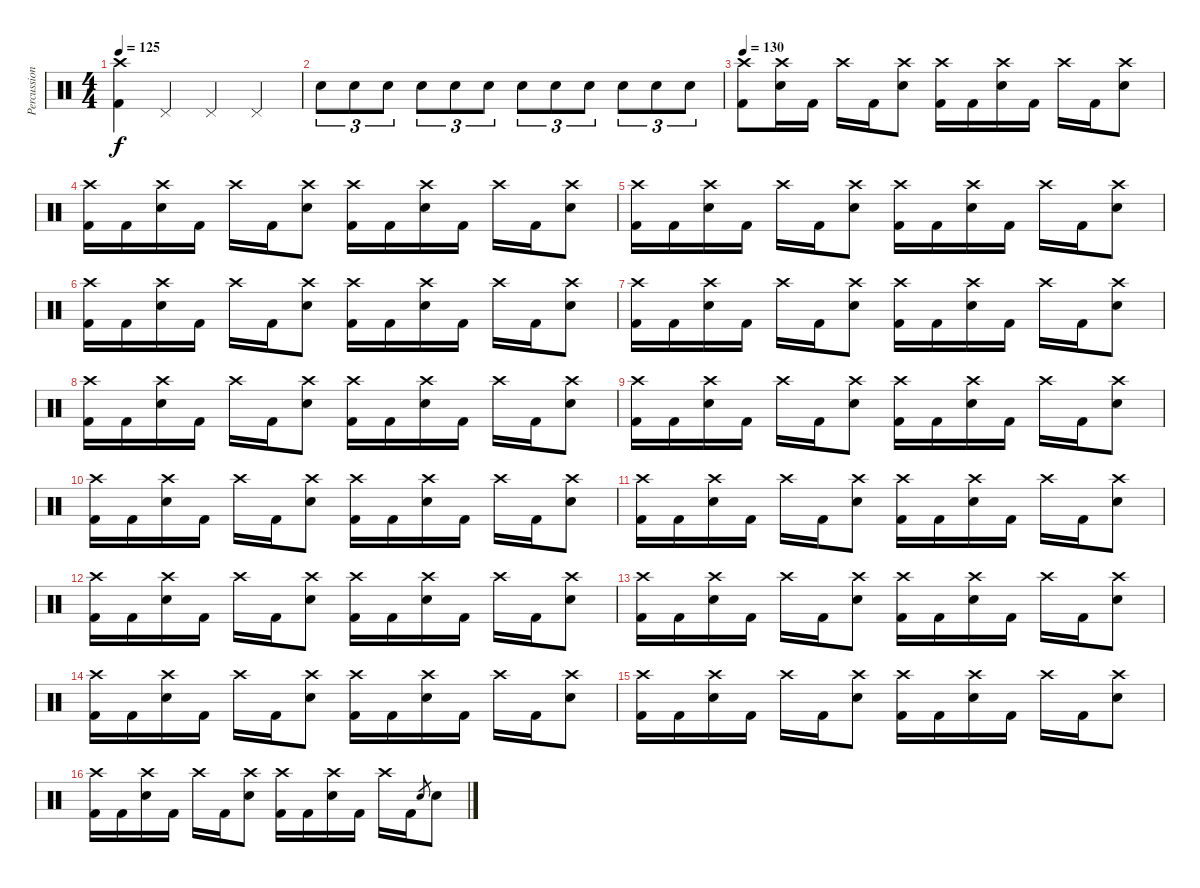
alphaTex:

\track ("Percussion" "Percussion") {instrument percussion}
\staff {score}
\articulation defaults
\ts (4 4)
\tempo 125
\clef neutral
\ks c
("Kick (hit) 2" "Crash high (hit)").4{dy f} "Pedal Hi-Hat (hit)".4 "Pedal Hi-Hat (hit)".4 "Pedal Hi-Hat (hit)".4 |
"Electric Snare (hit)".8{tu (3 2)} "Electric Snare (hit)".8{tu (3 2)} "Electric Snare (hit)".8{tu (3 2)} "Electric Snare (hit)".8{tu (3 2)} "Electric Snare (hit)".8{tu (3 2)} "Electric Snare (hit)".8{tu (3 2)} "Electric Snare (hit)".8{tu (3 2)} "Electric Snare (hit)".8{tu (3 2)} "Electric Snare (hit)".8{tu (3 2)} "Electric Snare (hit)".8{tu (3 2)} "Electric Snare (hit)".8{tu (3 2)} "Electric Snare (hit)".8{tu (3 2)} |
\tempo 130
("Kick (hit) 2" "Crash high (hit)").8 ("Electric Snare (hit)" "Crash high (hit)").16 "Kick (hit) 2".16 "Crash high (hit)".16 "Kick (hit) 2".16 ("Electric Snare (hit)" "Crash high (hit)").8 ("Kick (hit) 2" "Crash high (hit)").16 "Kick (hit) 2".16 ("Electric Snare (hit)" "Crash high (hit)").16 "Kick (hit) 2".16 "Crash high (hit)".16 "Kick (hit) 2".16 ("Electric Snare (hit)" "Crash high (hit)").8 |
("Kick (hit) 2" "Crash high (hit)").16 "Kick (hit) 2".16 ("Electric Snare (hit)" "Crash high (hit)").16 "Kick (hit) 2".16 "Crash high (hit)".16 "Kick (hit) 2".16 ("Electric Snare (hit)" "Crash high (hit)").8 ("Kick (hit) 2" "Crash high (hit)").16 "Kick (hit) 2".16 ("Electric Snare (hit)" "Crash high (hit)").16 "Kick (hit) 2".16 "Crash high (hit)".16 "Kick (hit) 2".16 ("Electric Snare (hit)" "Crash high (hit)").8 |
("Kick (hit) 2" "Crash high (hit)").16 "Kick (hit) 2".16 ("Electric Snare (hit)" "Crash high (hit)").16 "Kick (hit) 2".16 "Crash high (hit)".16 "Kick (hit) 2".16 ("Electric Snare (hit)" "Crash high (hit)").8 ("Kick (hit) 2" "Crash high (hit)").16 "Kick (hit) 2".16 ("Electric Snare (hit)" "Crash high (hit)").16 "Kick (hit) 2".16 "Crash high (hit)".16 "Kick (hit) 2".16 ("Electric Snare (hit)" "Crash high (hit)").8 |
("Kick (hit) 2" "Crash high (hit)").16 "Kick (hit) 2".16 ("Electric Snare (hit)" "Crash high (hit)").16 "Kick (hit) 2".16 "Crash high (hit)".16 "Kick (hit) 2".16 ("Electric Snare (hit)" "Crash high (hit)").8 ("Kick (hit) 2" "Crash high (hit)").16 "Kick (hit) 2".16 ("Electric Snare (hit)" "Crash high (hit)").16 "Kick (hit) 2".16 "Crash high (hit)".16 "Kick (hit) 2".16 ("Electric Snare (hit)" "Crash high (hit)").8 |
("Kick (hit) 2" "Crash high (hit)").16 "Kick (hit) 2".16 ("Electric Snare (hit)" "Crash high (hit)").16 "Kick (hit) 2".16 "Crash high (hit)".16 "Kick (hit) 2".16 ("Electric Snare (hit)" "Crash high (hit)").8 ("Kick (hit) 2" "Crash high (hit)").16 "Kick (hit) 2".16 ("Electric Snare (hit)" "Crash high (hit)").16 "Kick (hit) 2".16 "Crash high (hit)".16 "Kick (hit) 2".16 ("Electric Snare (hit)" "Crash high (hit)").8 |
("Kick (hit) 2" "Crash high (hit)").16 "Kick (hit) 2".16 ("Electric Snare (hit)" "Crash high (hit)").16 "Kick (hit) 2".16 "Crash high (hit)".16 "Kick (hit) 2".16 ("Electric Snare (hit)" "Crash high (hit)").8 ("Kick (hit) 2" "Crash high (hit)").16 "Kick (hit) 2".16 ("Electric Snare (hit)" "Crash high (hit)").16 "Kick (hit) 2".16 "Crash high (hit)".16 "Kick (hit) 2".16 ("Electric Snare (hit)" "Crash high (hit)").8 |
("Kick (hit) 2" "Crash high (hit)").16 "Kick (hit) 2".16 ("Electric Snare (hit)" "Crash high (hit)").16 "Kick (hit) 2".16 "Crash high (hit)".16 "Kick (hit) 2".16 ("Electric Snare (hit)" "Crash high (hit)").8 ("Kick (hit) 2" "Crash high (hit)").16 "Kick (hit) 2".16 ("Electric Snare (hit)" "Crash high (hit)").16 "Kick (hit) 2".16 "Crash high (hit)".16 "Kick (hit) 2".16 ("Electric Snare (hit)" "Crash high (hit)").8 |
("Kick (hit) 2" "Crash high (hit)").16 "Kick (hit) 2".16 ("Electric Snare (hit)" "Crash high (hit)").16 "Kick (hit) 2".16 "Crash high (hit)".16 "Kick (hit) 2".16 ("Electric Snare (hit)" "Crash high (hit)").8 ("Kick (hit) 2" "Crash high (hit)").16 "Kick (hit) 2".16 ("Electric Snare (hit)" "Crash high (hit)").16 "Kick (hit) 2".16 "Crash high (hit)".16 "Kick (hit) 2".16 ("Electric Snare (hit)" "Crash high (hit)").8 |
("Kick (hit) 2" "Crash high (hit)").16 "Kick (hit) 2".16 ("Electric Snare (hit)" "Crash high (hit)").16 "Kick (hit) 2".16 "Crash high (hit)".16 "Kick (hit) 2".16 ("Electric Snare (hit)" "Crash high (hit)").8 ("Kick (hit) 2" "Crash high (hit)").16 "Kick (hit) 2".16 ("Electric Snare (hit)" "Crash high (hit)").16 "Kick (hit) 2".16 "Crash high (hit)".16 "Kick (hit) 2".16 ("Electric Snare (hit)" "Crash high (hit)").8 |
("Kick (hit) 2" "Crash high (hit)").16 "Kick (hit) 2".16 ("Electric Snare (hit)" "Crash high (hit)").16 "Kick (hit) 2".16 "Crash high (hit)".16 "Kick (hit) 2".16 ("Electric Snare (hit)" "Crash high (hit)").8 ("Kick (hit) 2" "Crash high (hit)").16 "Kick (hit) 2".16 ("Electric Snare (hit)" "Crash high (hit)").16 "Kick (hit) 2".16 "Crash high (hit)".16 "Kick (hit) 2".16 ("Electric Snare (hit)" "Crash high (hit)").8 |
("Kick (hit) 2" "Crash high (hit)").16 "Kick (hit) 2".16 ("Electric Snare (hit)" "Crash high (hit)").16 "Kick (hit) 2".16 "Crash high (hit)".16 "Kick (hit) 2".16 ("Electric Snare (hit)" "Crash high (hit)").8 ("Kick (hit) 2" "Crash high (hit)").16 "Kick (hit) 2".16 ("Electric Snare (hit)" "Crash high (hit)").16 "Kick (hit) 2".16 "Crash high (hit)".16 "Kick (hit) 2".16 ("Electric Snare (hit)" "Crash high (hit)").8 |
("Kick (hit) 2" "Crash high (hit)").16 "Kick (hit) 2".16 ("Electric Snare (hit)" "Crash high (hit)").16 "Kick (hit) 2".16 "Crash high (hit)".16 "Kick (hit) 2".16 ("Electric Snare (hit)" "Crash high (hit)").8 ("Kick (hit) 2" "Crash high (hit)").16 "Kick (hit) 2".16 ("Electric Snare (hit)" "Crash high (hit)").16 "Kick (hit) 2".16 "Crash high (hit)".16 "Kick (hit) 2".16 ("Electric Snare (hit)" "Crash high (hit)").8 |
("Kick (hit) 2" "Crash high (hit)").16 "Kick (hit) 2".16 ("Electric Snare (hit)" "Crash high (hit)").16 "Kick (hit) 2".16 "Crash high (hit)".16 "Kick (hit) 2".16 ("Electric Snare (hit)" "Crash high (hit)").8 ("Kick (hit) 2" "Crash high (hit)").16 "Kick (hit) 2".16 ("Electric Snare (hit)" "Crash high (hit)").16 "Kick (hit) 2".16 "Crash high (hit)".16 "Kick (hit) 2".16 ("Electric Snare (hit)" "Crash high (hit)").8 |
("Kick (hit) 2" "Crash high (hit)").16 "Kick (hit) 2".16 ("Electric Snare (hit)" "Crash high (hit)").16 "Kick (hit) 2".16 "Crash high (hit)".16 "Kick (hit) 2".16 ("Electric Snare (hit)" "Crash high (hit)").8 ("Kick (hit) 2" "Crash high (hit)").16 "Kick (hit) 2".16 ("Electric Snare (hit)" "Crash high (hit)").16 "Kick (hit) 2".16 "Crash high (hit)".16 "Kick (hit) 2".16 "Electric Snare (hit)".8{gr} "Electric Snare (hit)".8
